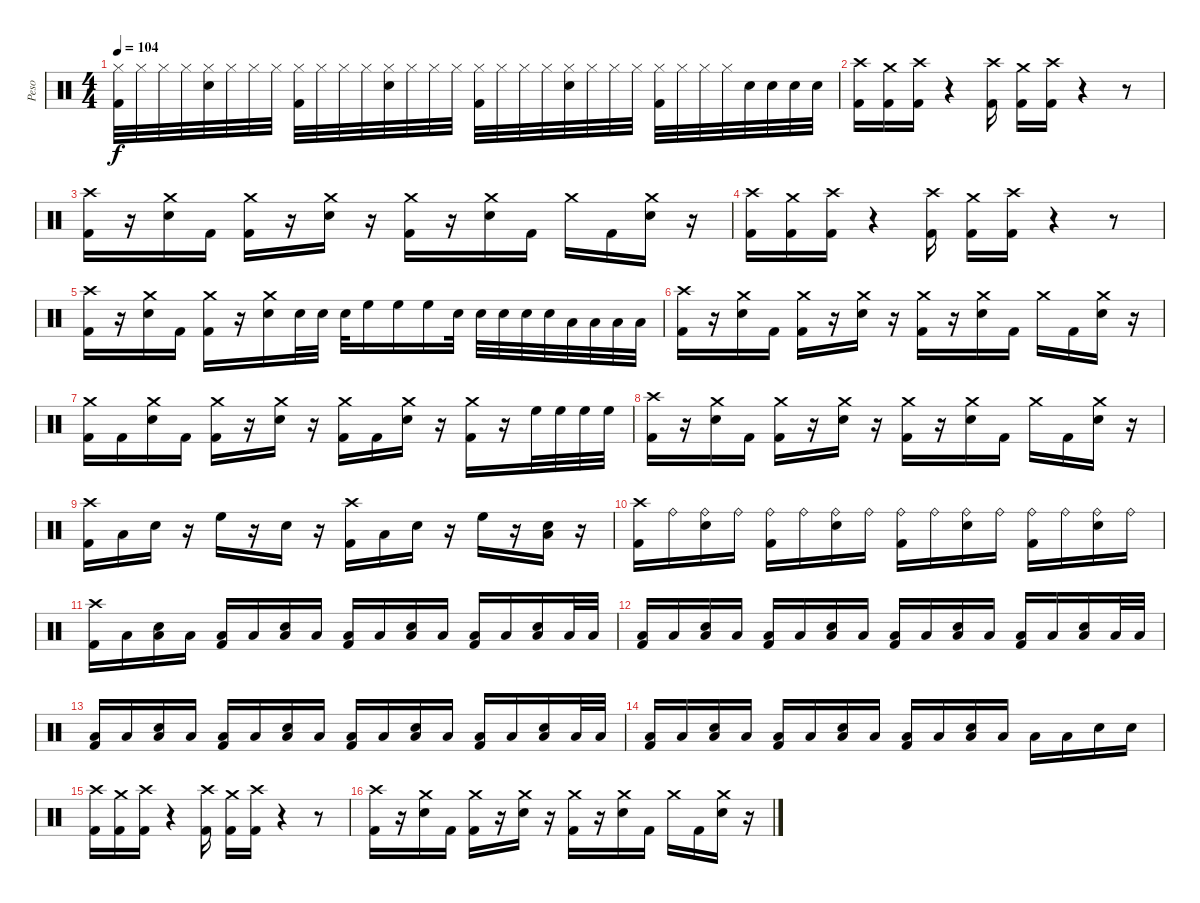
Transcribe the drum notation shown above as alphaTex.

\track ("Peso" "Peso") {instrument percussion}
\staff {score}
\articulation defaults
\ts (4 4)
\tempo 104
\clef neutral
\ks c
("Hi-Hat (closed)" "Kick (hit) 2").32{dy f} "Hi-Hat (closed)".32 "Hi-Hat (closed)".32 "Hi-Hat (closed)".32 ("Hi-Hat (closed)" "Snare (hit) 2").32 "Hi-Hat (closed)".32 "Hi-Hat (closed)".32 "Hi-Hat (closed)".32 ("Hi-Hat (closed)" "Kick (hit) 2").32 "Hi-Hat (closed)".32 "Hi-Hat (closed)".32 "Hi-Hat (closed)".32 ("Hi-Hat (closed)" "Snare (hit) 2").32 "Hi-Hat (closed)".32 "Hi-Hat (closed)".32 "Hi-Hat (closed)".32 ("Hi-Hat (closed)" "Kick (hit) 2").32 "Hi-Hat (closed)".32 "Hi-Hat (closed)".32 "Hi-Hat (closed)".32 ("Hi-Hat (closed)" "Snare (hit) 2").32 "Hi-Hat (closed)".32 "Hi-Hat (closed)".32 "Hi-Hat (closed)".32 ("Hi-Hat (closed)" "Kick (hit) 2").32 "Hi-Hat (closed)".32 "Hi-Hat (closed)".32 "Hi-Hat (closed)".32 "Snare (hit) 2".32 "Snare (hit) 2".32 "Snare (hit) 2".32 "Snare (hit) 2".32 |
("Crash high (hit)" "Kick (hit) 2").16 ("Crash medium (hit)" "Kick (hit) 2").16 ("Crash high (hit)" "Kick (hit) 2").16 r.4 ("Crash high (hit)" "Kick (hit) 2").16 ("Crash medium (hit)" "Kick (hit) 2").16 ("Crash high (hit)" "Kick (hit) 2").16 r.4 r.8 |
("Crash high (hit)" "Kick (hit) 2").16 r.16 ("Crash medium (hit)" "Snare (hit) 2").16 "Kick (hit) 2".16 ("Crash medium (hit)" "Kick (hit) 2").16 r.16 ("Crash medium (hit)" "Snare (hit) 2").16 r.16 ("Crash medium (hit)" "Kick (hit) 2").16 r.16 ("Crash medium (hit)" "Snare (hit) 2").16 "Kick (hit) 2".16 "Crash medium (hit)".16 "Kick (hit) 2".16 ("Crash medium (hit)" "Snare (hit) 2").16 r.16 |
("Crash high (hit)" "Kick (hit) 2").16 ("Crash medium (hit)" "Kick (hit) 2").16 ("Crash high (hit)" "Kick (hit) 2").16 r.4 ("Crash high (hit)" "Kick (hit) 2").16 ("Crash medium (hit)" "Kick (hit) 2").16 ("Crash high (hit)" "Kick (hit) 2").16 r.4 r.8 |
("Crash high (hit)" "Kick (hit) 2").16 r.16 ("Crash medium (hit)" "Snare (hit) 2").16 "Kick (hit) 2".16 ("Crash medium (hit)" "Kick (hit) 2").16 r.16 ("Crash medium (hit)" "Snare (hit) 2").16 "Snare (hit) 2".32 "Snare (hit) 2".32 "Snare (hit) 2".32 "High Floor Tom (hit)".16 "High Floor Tom (hit)".16 "High Floor Tom (hit)".16 "Snare (hit) 2".32 "Snare (hit) 2".32 "Snare (hit) 2".32 "Snare (hit) 2".32 "Snare (hit) 2".32 "Low Floor Tom (hit)".32 "Low Floor Tom (hit)".32 "Low Floor Tom (hit)".32 "Low Floor Tom (hit)".32 |
("Crash high (hit)" "Kick (hit) 2").16 r.16 ("Crash medium (hit)" "Snare (hit) 2").16 "Kick (hit) 2".16 ("Crash medium (hit)" "Kick (hit) 2").16 r.16 ("Crash medium (hit)" "Snare (hit) 2").16 r.16 ("Crash medium (hit)" "Kick (hit) 2").16 r.16 ("Crash medium (hit)" "Snare (hit) 2").16 "Kick (hit) 2".16 "Crash medium (hit)".16 "Kick (hit) 2".16 ("Crash medium (hit)" "Snare (hit) 2").16 r.16 |
("Crash medium (hit)" "Kick (hit) 2").16 "Kick (hit) 2".16 ("Crash medium (hit)" "Snare (hit) 2").16 "Kick (hit) 2".16 ("Crash medium (hit)" "Kick (hit) 2").16 r.16 ("Crash medium (hit)" "Snare (hit) 2").16 r.16 ("Crash medium (hit)" "Kick (hit) 2").16 "Kick (hit) 2".16 ("Crash medium (hit)" "Snare (hit) 2").16 r.16 ("Crash medium (hit)" "Kick (hit) 2").16 r.16 "High Floor Tom (hit)".32 "High Floor Tom (hit)".32 "High Floor Tom (hit)".32 "High Floor Tom (hit)".32 |
("Crash high (hit)" "Kick (hit) 2").16 r.16 ("Crash medium (hit)" "Snare (hit) 2").16 "Kick (hit) 2".16 ("Crash medium (hit)" "Kick (hit) 2").16 r.16 ("Crash medium (hit)" "Snare (hit) 2").16 r.16 ("Crash medium (hit)" "Kick (hit) 2").16 r.16 ("Crash medium (hit)" "Snare (hit) 2").16 "Kick (hit) 2".16 "Crash medium (hit)".16 "Kick (hit) 2".16 ("Crash medium (hit)" "Snare (hit) 2").16 r.16 |
("Crash high (hit)" "Kick (hit) 2").16 "Low Floor Tom (hit)".16 "Snare (hit) 2".16 r.16 "High Floor Tom (hit)".16 r.16 "Snare (hit) 2".16 r.16 ("Crash high (hit)" "Kick (hit) 2").16 "Low Floor Tom (hit)".16 "Snare (hit) 2".16 r.16 "High Floor Tom (hit)".16 r.16 ("Low Floor Tom (hit)" "Snare (hit) 2").16 r.16 |
("Crash high (hit)" "Kick (hit) 2").16 "Ride (bell)".16 ("Ride (bell)" "Snare (hit) 2").16 "Ride (bell)".16 ("Ride (bell)" "Kick (hit) 2").16 "Ride (bell)".16 ("Ride (bell)" "Snare (hit) 2").16 "Ride (bell)".16 ("Ride (bell)" "Kick (hit) 2").16 "Ride (bell)".16 ("Ride (bell)" "Snare (hit) 2").16 "Ride (bell)".16 ("Ride (bell)" "Kick (hit) 2").16 "Ride (bell)".16 ("Ride (bell)" "Snare (hit) 2").16 "Ride (bell)".16 |
("Crash high (hit)" "Kick (hit) 2").16 "Low Floor Tom (hit)".16 ("Low Floor Tom (hit)" "Snare (hit) 2").16 "Low Floor Tom (hit)".16 ("Low Floor Tom (hit)" "Kick (hit) 2").16 "Low Floor Tom (hit)".16 ("Low Floor Tom (hit)" "Snare (hit) 2").16 "Low Floor Tom (hit)".16 ("Low Floor Tom (hit)" "Kick (hit) 2").16 "Low Floor Tom (hit)".16 ("Low Floor Tom (hit)" "Snare (hit) 2").16 "Low Floor Tom (hit)".16 ("Low Floor Tom (hit)" "Kick (hit) 2").16 "Low Floor Tom (hit)".16 ("Low Floor Tom (hit)" "Snare (hit) 2").16 "Low Floor Tom (hit)".32 "Low Floor Tom (hit)".32 |
("Low Floor Tom (hit)" "Kick (hit) 2").16 "Low Floor Tom (hit)".16 ("Low Floor Tom (hit)" "Snare (hit) 2").16 "Low Floor Tom (hit)".16 ("Low Floor Tom (hit)" "Kick (hit) 2").16 "Low Floor Tom (hit)".16 ("Low Floor Tom (hit)" "Snare (hit) 2").16 "Low Floor Tom (hit)".16 ("Low Floor Tom (hit)" "Kick (hit) 2").16 "Low Floor Tom (hit)".16 ("Low Floor Tom (hit)" "Snare (hit) 2").16 "Low Floor Tom (hit)".16 ("Low Floor Tom (hit)" "Kick (hit) 2").16 "Low Floor Tom (hit)".16 ("Low Floor Tom (hit)" "Snare (hit) 2").16 "Low Floor Tom (hit)".32 "Low Floor Tom (hit)".32 |
("Low Floor Tom (hit)" "Kick (hit) 2").16 "Low Floor Tom (hit)".16 ("Low Floor Tom (hit)" "Snare (hit) 2").16 "Low Floor Tom (hit)".16 ("Low Floor Tom (hit)" "Kick (hit) 2").16 "Low Floor Tom (hit)".16 ("Low Floor Tom (hit)" "Snare (hit) 2").16 "Low Floor Tom (hit)".16 ("Low Floor Tom (hit)" "Kick (hit) 2").16 "Low Floor Tom (hit)".16 ("Low Floor Tom (hit)" "Snare (hit) 2").16 "Low Floor Tom (hit)".16 ("Low Floor Tom (hit)" "Kick (hit) 2").16 "Low Floor Tom (hit)".16 ("Low Floor Tom (hit)" "Snare (hit) 2").16 "Low Floor Tom (hit)".32 "Low Floor Tom (hit)".32 |
("Low Floor Tom (hit)" "Kick (hit) 2").16 "Low Floor Tom (hit)".16 ("Low Floor Tom (hit)" "Snare (hit) 2").16 "Low Floor Tom (hit)".16 ("Low Floor Tom (hit)" "Kick (hit) 2").16 "Low Floor Tom (hit)".16 ("Low Floor Tom (hit)" "Snare (hit) 2").16 "Low Floor Tom (hit)".16 ("Low Floor Tom (hit)" "Kick (hit) 2").16 "Low Floor Tom (hit)".16 ("Low Floor Tom (hit)" "Snare (hit) 2").16 "Low Floor Tom (hit)".16 "Low Floor Tom (hit)".16 "Low Floor Tom (hit)".16 "Snare (hit) 2".16 "Snare (hit) 2".16 |
("Crash high (hit)" "Kick (hit) 2").16 ("Crash medium (hit)" "Kick (hit) 2").16 ("Crash high (hit)" "Kick (hit) 2").16 r.4 ("Crash high (hit)" "Kick (hit) 2").16 ("Crash medium (hit)" "Kick (hit) 2").16 ("Crash high (hit)" "Kick (hit) 2").16 r.4 r.8 |
("Crash high (hit)" "Kick (hit) 2").16 r.16 ("Crash medium (hit)" "Snare (hit) 2").16 "Kick (hit) 2".16 ("Crash medium (hit)" "Kick (hit) 2").16 r.16 ("Crash medium (hit)" "Snare (hit) 2").16 r.16 ("Crash medium (hit)" "Kick (hit) 2").16 r.16 ("Crash medium (hit)" "Snare (hit) 2").16 "Kick (hit) 2".16 "Crash medium (hit)".16 "Kick (hit) 2".16 ("Crash medium (hit)" "Snare (hit) 2").16 r.16
